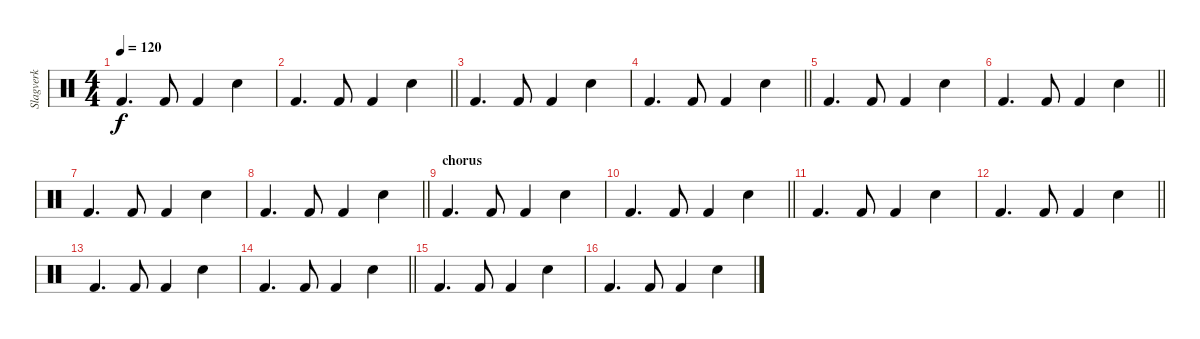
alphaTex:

\track ("Slagverk" "Slagverk") {instrument percussion}
\staff {score}
\articulation defaults
\ts (4 4)
\tempo 120
\clef neutral
\ks c "Kick (hit) 2".4{d dy f} "Kick (hit) 2".8 "Kick (hit) 2".4 "Snare (hit) 2".4
|
\barLineRight lightlight "Kick (hit) 2".4{d} "Kick (hit) 2".8 "Kick (hit) 2".4 "Snare (hit) 2".4
|
"Kick (hit) 2".4{d} "Kick (hit) 2".8 "Kick (hit) 2".4 "Snare (hit) 2".4 |
\barLineRight lightlight "Kick (hit) 2".4{d} "Kick (hit) 2".8 "Kick (hit) 2".4 "Snare (hit) 2".4
|
"Kick (hit) 2".4{d} "Kick (hit) 2".8 "Kick (hit) 2".4 "Snare (hit) 2".4 |
\barLineRight lightlight "Kick (hit) 2".4{d} "Kick (hit) 2".8 "Kick (hit) 2".4 "Snare (hit) 2".4
|
"Kick (hit) 2".4{d} "Kick (hit) 2".8 "Kick (hit) 2".4 "Snare (hit) 2".4 |
\barLineRight lightlight "Kick (hit) 2".4{d} "Kick (hit) 2".8 "Kick (hit) 2".4 "Snare (hit) 2".4
|
\section ("" "chorus")
"Kick (hit) 2".4{d} "Kick (hit) 2".8 "Kick (hit) 2".4 "Snare (hit) 2".4 |
\barLineRight lightlight "Kick (hit) 2".4{d} "Kick (hit) 2".8 "Kick (hit) 2".4 "Snare (hit) 2".4
|
"Kick (hit) 2".4{d} "Kick (hit) 2".8 "Kick (hit) 2".4 "Snare (hit) 2".4 |
\barLineRight lightlight "Kick (hit) 2".4{d} "Kick (hit) 2".8 "Kick (hit) 2".4 "Snare (hit) 2".4
|
"Kick (hit) 2".4{d} "Kick (hit) 2".8 "Kick (hit) 2".4 "Snare (hit) 2".4 |
\barLineRight lightlight "Kick (hit) 2".4{d} "Kick (hit) 2".8 "Kick (hit) 2".4 "Snare (hit) 2".4
|
"Kick (hit) 2".4{d} "Kick (hit) 2".8 "Kick (hit) 2".4 "Snare (hit) 2".4 |
"Kick (hit) 2".4{d} "Kick (hit) 2".8 "Kick (hit) 2".4 "Snare (hit) 2".4
